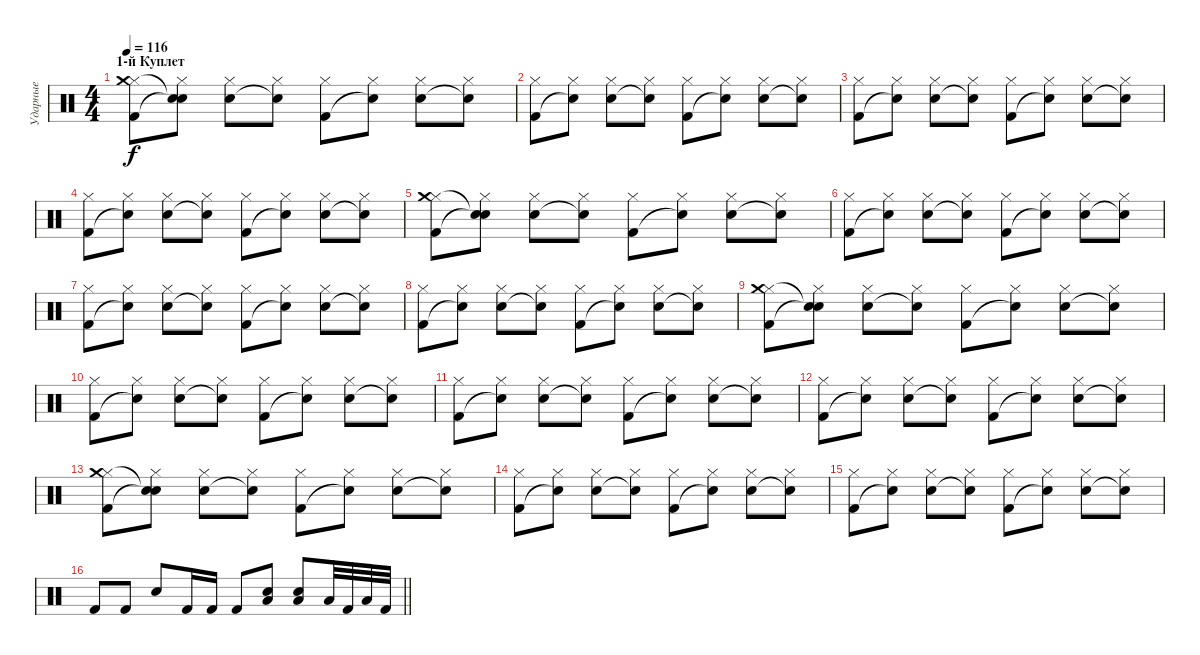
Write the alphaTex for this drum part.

\track ("Ударные" "Ударные") {instrument percussion}
\staff {score}
\articulation defaults
\ts (4 4)
\section ("" "1-й Куплет")
\tempo 116
\clef neutral
\ks c
("Hi-Hat (closed)" "Crash medium (hit)" "Kick (hit) 2").8{dy f} ("Hi-Hat (closed)" "Snare (hit)"{t} "Snare (hit)"{t}).8 ("Hi-Hat (closed)" "Snare (hit) 2").8 ("Hi-Hat (closed)" "Snare (hit)"{t}).8 ("Hi-Hat (closed)" "Kick (hit) 2").8 ("Hi-Hat (closed)" "Snare (hit)"{t}).8 ("Hi-Hat (closed)" "Snare (hit) 2").8 ("Hi-Hat (closed)" "Snare (hit)"{t}).8 |
("Hi-Hat (closed)" "Kick (hit) 2").8 ("Hi-Hat (closed)" "Snare (hit)"{t}).8 ("Hi-Hat (closed)" "Snare (hit) 2").8 ("Hi-Hat (closed)" "Snare (hit)"{t}).8 ("Hi-Hat (closed)" "Kick (hit) 2").8 ("Hi-Hat (closed)" "Snare (hit)"{t}).8 ("Hi-Hat (closed)" "Snare (hit) 2").8 ("Hi-Hat (closed)" "Snare (hit)"{t}).8 |
("Hi-Hat (closed)" "Kick (hit) 2").8 ("Hi-Hat (closed)" "Snare (hit)"{t}).8 ("Hi-Hat (closed)" "Snare (hit) 2").8 ("Hi-Hat (closed)" "Snare (hit)"{t}).8 ("Hi-Hat (closed)" "Kick (hit) 2").8 ("Hi-Hat (closed)" "Snare (hit)"{t}).8 ("Hi-Hat (closed)" "Snare (hit) 2").8 ("Hi-Hat (closed)" "Snare (hit)"{t}).8 |
("Hi-Hat (closed)" "Kick (hit) 2").8 ("Hi-Hat (closed)" "Snare (hit)"{t}).8 ("Hi-Hat (closed)" "Snare (hit) 2").8 ("Hi-Hat (closed)" "Snare (hit)"{t}).8 ("Hi-Hat (closed)" "Kick (hit) 2").8 ("Hi-Hat (closed)" "Snare (hit)"{t}).8 ("Hi-Hat (closed)" "Snare (hit) 2").8 ("Hi-Hat (closed)" "Snare (hit)"{t}).8 |
("Hi-Hat (closed)" "Crash medium (hit)" "Kick (hit) 2").8 ("Hi-Hat (closed)" "Snare (hit)"{t} "Snare (hit)"{t}).8 ("Hi-Hat (closed)" "Snare (hit) 2").8 ("Hi-Hat (closed)" "Snare (hit)"{t}).8 ("Hi-Hat (closed)" "Kick (hit) 2").8 ("Hi-Hat (closed)" "Snare (hit)"{t}).8 ("Hi-Hat (closed)" "Snare (hit) 2").8 ("Hi-Hat (closed)" "Snare (hit)"{t}).8 |
("Hi-Hat (closed)" "Kick (hit) 2").8 ("Hi-Hat (closed)" "Snare (hit)"{t}).8 ("Hi-Hat (closed)" "Snare (hit) 2").8 ("Hi-Hat (closed)" "Snare (hit)"{t}).8 ("Hi-Hat (closed)" "Kick (hit) 2").8 ("Hi-Hat (closed)" "Snare (hit)"{t}).8 ("Hi-Hat (closed)" "Snare (hit) 2").8 ("Hi-Hat (closed)" "Snare (hit)"{t}).8 |
("Hi-Hat (closed)" "Kick (hit) 2").8 ("Hi-Hat (closed)" "Snare (hit)"{t}).8 ("Hi-Hat (closed)" "Snare (hit) 2").8 ("Hi-Hat (closed)" "Snare (hit)"{t}).8 ("Hi-Hat (closed)" "Kick (hit) 2").8 ("Hi-Hat (closed)" "Snare (hit)"{t}).8 ("Hi-Hat (closed)" "Snare (hit) 2").8 ("Hi-Hat (closed)" "Snare (hit)"{t}).8 |
("Hi-Hat (closed)" "Kick (hit) 2").8 ("Hi-Hat (closed)" "Snare (hit)"{t}).8 ("Hi-Hat (closed)" "Snare (hit) 2").8 ("Hi-Hat (closed)" "Snare (hit)"{t}).8 ("Hi-Hat (closed)" "Kick (hit) 2").8 ("Hi-Hat (closed)" "Snare (hit)"{t}).8 ("Hi-Hat (closed)" "Snare (hit) 2").8 ("Hi-Hat (closed)" "Snare (hit)"{t}).8 |
("Hi-Hat (closed)" "Crash medium (hit)" "Kick (hit) 2").8 ("Hi-Hat (closed)" "Snare (hit)"{t} "Snare (hit)"{t}).8 ("Hi-Hat (closed)" "Snare (hit) 2").8 ("Hi-Hat (closed)" "Snare (hit)"{t}).8 ("Hi-Hat (closed)" "Kick (hit) 2").8 ("Hi-Hat (closed)" "Snare (hit)"{t}).8 ("Hi-Hat (closed)" "Snare (hit) 2").8 ("Hi-Hat (closed)" "Snare (hit)"{t}).8 |
("Hi-Hat (closed)" "Kick (hit) 2").8 ("Hi-Hat (closed)" "Snare (hit)"{t}).8 ("Hi-Hat (closed)" "Snare (hit) 2").8 ("Hi-Hat (closed)" "Snare (hit)"{t}).8 ("Hi-Hat (closed)" "Kick (hit) 2").8 ("Hi-Hat (closed)" "Snare (hit)"{t}).8 ("Hi-Hat (closed)" "Snare (hit) 2").8 ("Hi-Hat (closed)" "Snare (hit)"{t}).8 |
("Hi-Hat (closed)" "Kick (hit) 2").8 ("Hi-Hat (closed)" "Snare (hit)"{t}).8 ("Hi-Hat (closed)" "Snare (hit) 2").8 ("Hi-Hat (closed)" "Snare (hit)"{t}).8 ("Hi-Hat (closed)" "Kick (hit) 2").8 ("Hi-Hat (closed)" "Snare (hit)"{t}).8 ("Hi-Hat (closed)" "Snare (hit) 2").8 ("Hi-Hat (closed)" "Snare (hit)"{t}).8 |
("Hi-Hat (closed)" "Kick (hit) 2").8 ("Hi-Hat (closed)" "Snare (hit)"{t}).8 ("Hi-Hat (closed)" "Snare (hit) 2").8 ("Hi-Hat (closed)" "Snare (hit)"{t}).8 ("Hi-Hat (closed)" "Kick (hit) 2").8 ("Hi-Hat (closed)" "Snare (hit)"{t}).8 ("Hi-Hat (closed)" "Snare (hit) 2").8 ("Hi-Hat (closed)" "Snare (hit)"{t}).8 |
("Hi-Hat (closed)" "Crash medium (hit)" "Kick (hit) 2").8 ("Hi-Hat (closed)" "Snare (hit)"{t} "Snare (hit)"{t}).8 ("Hi-Hat (closed)" "Snare (hit) 2").8 ("Hi-Hat (closed)" "Snare (hit)"{t}).8 ("Hi-Hat (closed)" "Kick (hit) 2").8 ("Hi-Hat (closed)" "Snare (hit)"{t}).8 ("Hi-Hat (closed)" "Snare (hit) 2").8 ("Hi-Hat (closed)" "Snare (hit)"{t}).8 |
("Hi-Hat (closed)" "Kick (hit) 2").8 ("Hi-Hat (closed)" "Snare (hit)"{t}).8 ("Hi-Hat (closed)" "Snare (hit) 2").8 ("Hi-Hat (closed)" "Snare (hit)"{t}).8 ("Hi-Hat (closed)" "Kick (hit) 2").8 ("Hi-Hat (closed)" "Snare (hit)"{t}).8 ("Hi-Hat (closed)" "Snare (hit) 2").8 ("Hi-Hat (closed)" "Snare (hit)"{t}).8 |
("Hi-Hat (closed)" "Kick (hit) 2").8 ("Hi-Hat (closed)" "Snare (hit)"{t}).8 ("Hi-Hat (closed)" "Snare (hit) 2").8 ("Hi-Hat (closed)" "Snare (hit)"{t}).8 ("Hi-Hat (closed)" "Kick (hit) 2").8 ("Hi-Hat (closed)" "Snare (hit)"{t}).8 ("Hi-Hat (closed)" "Snare (hit) 2").8 ("Hi-Hat (closed)" "Snare (hit)"{t}).8 |
\barLineRight lightlight "Kick (hit) 2".8 "Kick (hit) 2".8 "Snare (hit) 2".8 "Kick (hit) 2".16 "Kick (hit) 2".16 "Kick (hit) 2".8
("Snare (hit) 2" "Low Tom (hit)").8 ("Snare (hit) 2" "Low Tom (hit)").8 "Low Floor Tom (hit)".32 "Kick (hit) 2".32 "Low Floor Tom (hit)".32 "Kick (hit) 2".32
